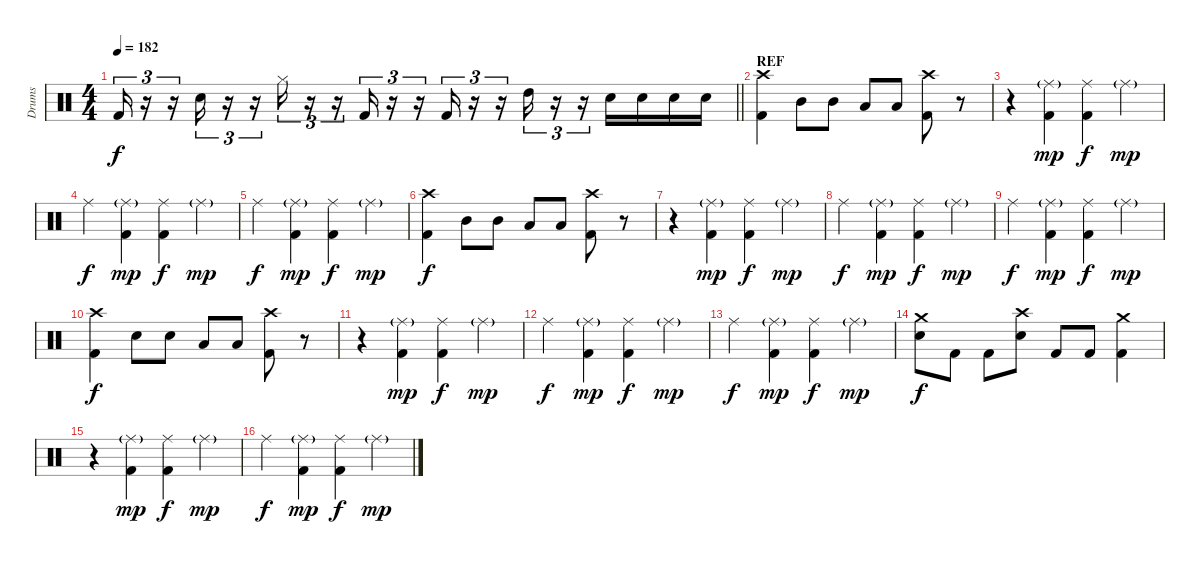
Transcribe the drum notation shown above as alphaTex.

\track ("Drums" "Drums") {instrument percussion}
\staff {score}
\articulation defaults
\ts (4 4)
\tempo 182
\clef neutral
\barLineRight lightlight
\ks c "Kick (hit) 2".16{tu (3 2) dy f}
r.16{tu (3 2)} r.16{tu (3 2)} "Electric Snare (hit)".16{tu (3 2)} r.16{tu (3 2)} r.16{tu (3 2)} "Hi-Hat (closed)".16{tu (3 2)} r.16{tu (3 2)} r.16{tu (3 2)} "Kick (hit) 2".16{tu (3 2)} r.16{tu (3 2)} r.16{tu (3 2)} "Kick (hit) 2".16{tu (3 2)} r.16{tu (3 2)} r.16{tu (3 2)} "High Tom (hit)".16{tu (3 2)} r.16{tu (3 2)} r.16{tu (3 2)} "Electric Snare (hit)".16 "Electric Snare (hit)".16 "Electric Snare (hit)".16 "Electric Snare (hit)".16 |
\section ("" "REF")
("Kick (hit) 2" "Crash high (hit)").4 "Mid Tom (hit)".8 "Mid Tom (hit)".8 "Low Tom (hit)".8 "Low Tom (hit)".8 ("Kick (hit) 2" "Crash high (hit)").8 r.8 |
r.4 ("Kick (hit) 2" "Ride (middle)"{g}).4{dy mp} ("Kick (hit) 2" "Ride (middle)").4{dy f} "Ride (middle)"{g}.4{dy mp} |
"Ride (middle)".4{dy f} ("Kick (hit) 2" "Ride (middle)"{g}).4{dy mp} ("Kick (hit) 2" "Ride (middle)").4{dy f} "Ride (middle)"{g}.4{dy mp} |
"Ride (middle)".4{dy f} ("Kick (hit) 2" "Ride (middle)"{g}).4{dy mp} ("Kick (hit) 2" "Ride (middle)").4{dy f} "Ride (middle)"{g}.4{dy mp} |
("Kick (hit) 2" "Crash high (hit)").4{dy f} "Mid Tom (hit)".8 "Mid Tom (hit)".8 "Low Tom (hit)".8 "Low Tom (hit)".8 ("Kick (hit) 2" "Crash high (hit)").8 r.8 |
r.4 ("Kick (hit) 2" "Ride (middle)"{g}).4{dy mp} ("Kick (hit) 2" "Ride (middle)").4{dy f} "Ride (middle)"{g}.4{dy mp} |
"Ride (middle)".4{dy f} ("Kick (hit) 2" "Ride (middle)"{g}).4{dy mp} ("Kick (hit) 2" "Ride (middle)").4{dy f} "Ride (middle)"{g}.4{dy mp} |
"Ride (middle)".4{dy f} ("Kick (hit) 2" "Ride (middle)"{g}).4{dy mp} ("Kick (hit) 2" "Ride (middle)").4{dy f} "Ride (middle)"{g}.4{dy mp} |
("Kick (hit) 2" "Crash high (hit)").4{dy f} "Electric Snare (hit)".8 "Electric Snare (hit)".8 "Low Tom (hit)".8 "Low Tom (hit)".8 ("Kick (hit) 2" "Crash high (hit)").8 r.8 |
r.4 ("Kick (hit) 2" "Ride (middle)"{g}).4{dy mp} ("Kick (hit) 2" "Ride (middle)").4{dy f} "Ride (middle)"{g}.4{dy mp} |
"Ride (middle)".4{dy f} ("Kick (hit) 2" "Ride (middle)"{g}).4{dy mp} ("Kick (hit) 2" "Ride (middle)").4{dy f} "Ride (middle)"{g}.4{dy mp} |
"Ride (middle)".4{dy f} ("Kick (hit) 2" "Ride (middle)"{g}).4{dy mp} ("Kick (hit) 2" "Ride (middle)").4{dy f} "Ride (middle)"{g}.4{dy mp} |
("Electric Snare (hit)" "Crash medium (hit)").8{dy f} "Kick (hit) 2".8 "Kick (hit) 2".8 ("Electric Snare (hit)" "Crash high (hit)").8 "Kick (hit) 2".8 "Kick (hit) 2".8 ("Kick (hit) 2" "Crash medium (hit)").4 |
r.4 ("Kick (hit) 2" "Ride (middle)"{g}).4{dy mp} ("Kick (hit) 2" "Ride (middle)").4{dy f} "Ride (middle)"{g}.4{dy mp} |
"Ride (middle)".4{dy f} ("Kick (hit) 2" "Ride (middle)"{g}).4{dy mp} ("Kick (hit) 2" "Ride (middle)").4{dy f} "Ride (middle)"{g}.4{dy mp}
